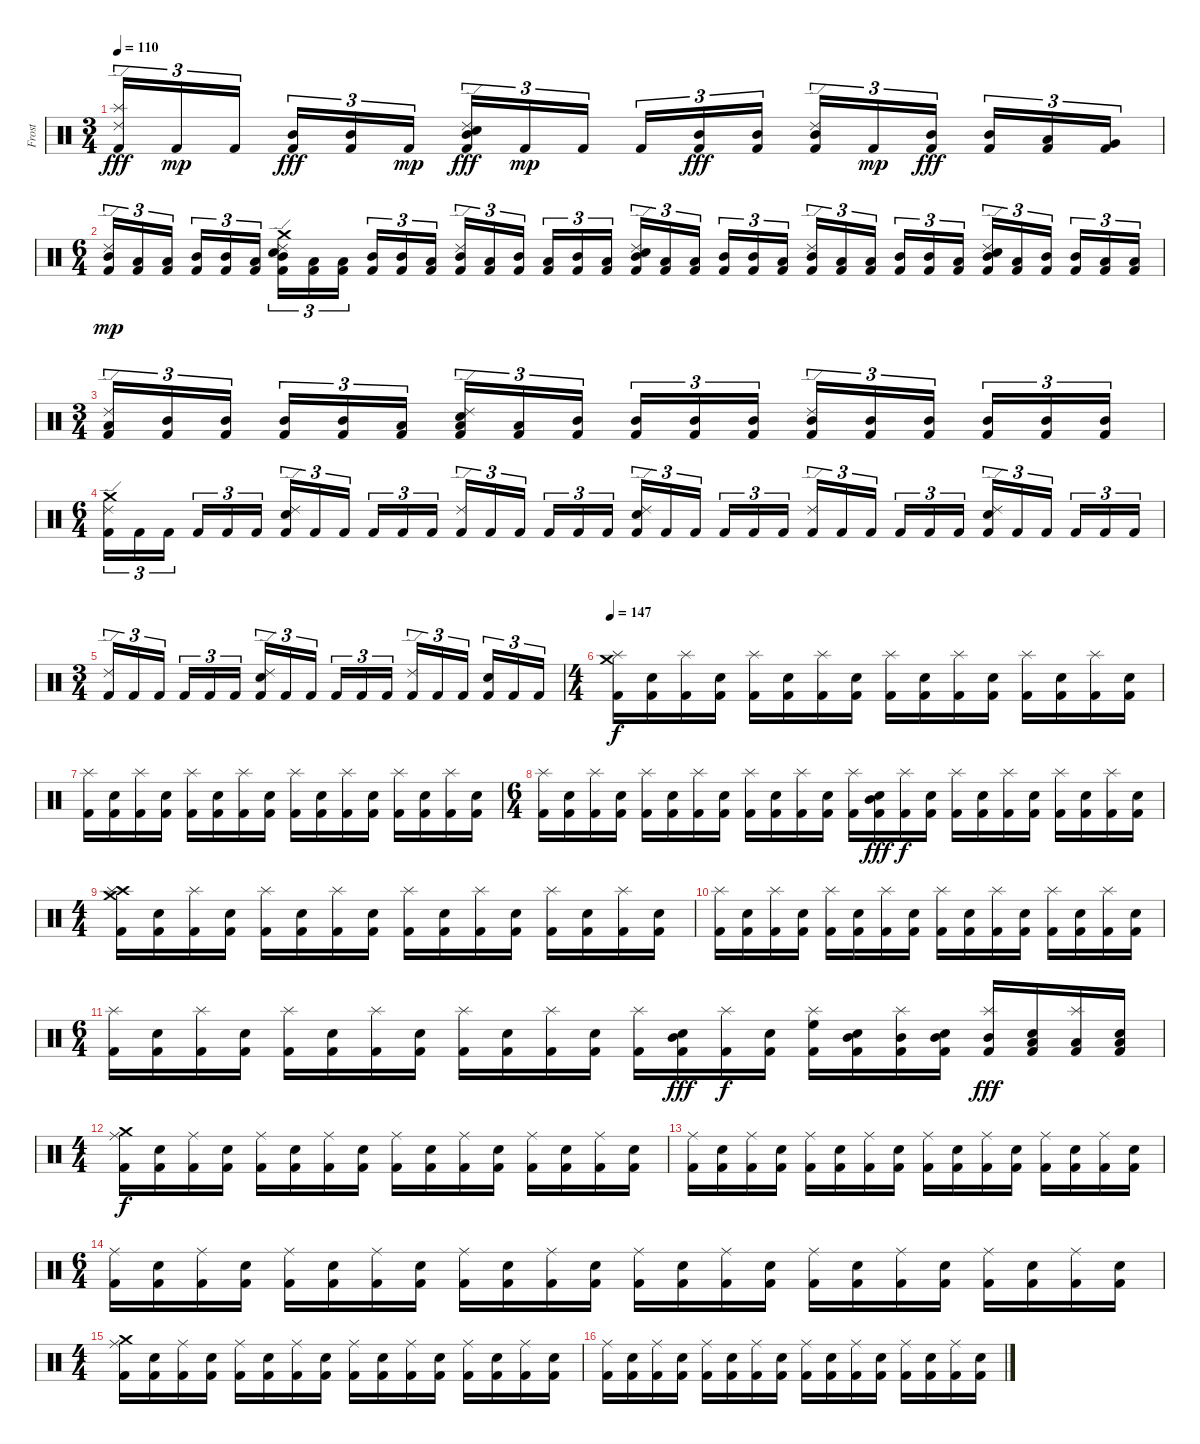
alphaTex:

\track ("Frost" "Frost") {instrument percussion}
\staff {score}
\articulation defaults
\ts (3 4)
\tempo 110
\clef neutral
\ks c
("Kick (hit) 2" "Splash (hit)" "Ride (edge) 2").16{tu (3 2) dy fff} "Kick (hit) 2".16{tu (3 2) dy mp} "Kick (hit) 2".16{tu (3 2)} ("Kick (hit) 2" "Mid Tom (hit)").16{tu (3 2) dy fff} ("Kick (hit) 2" "Mid Tom (hit)").16{tu (3 2)} "Kick (hit) 2".16{tu (3 2) dy mp} ("Kick (hit) 2" "Mid Tom (hit)" "Ride (edge) 2" "Snare (hit) 2").16{tu (3 2) dy fff} "Kick (hit) 2".16{tu (3 2) dy mp} "Kick (hit) 2".16{tu (3 2)} "Kick (hit) 2".16{tu (3 2)} ("Kick (hit) 2" "Mid Tom (hit)").16{tu (3 2) dy fff} ("Kick (hit) 2" "Mid Tom (hit)").16{tu (3 2)} ("Kick (hit) 2" "Mid Tom (hit)" "Ride (edge) 2").16{tu (3 2)} "Kick (hit) 2".16{tu (3 2) dy mp} ("Kick (hit) 2" "Mid Tom (hit)").16{tu (3 2) dy fff} ("Kick (hit) 2" "Mid Tom (hit)").16{tu (3 2)} ("Kick (hit) 2" "Low Tom (hit)").16{tu (3 2)} ("Kick (hit) 2" "Very Low Tom (hit)").16{tu (3 2)} |
\ts (6 4)
("Kick (hit) 2" "Mid Tom (hit)" "Ride (edge) 2").16{tu (3 2) dy mp} ("Kick (hit) 2" "Low Floor Tom (hit)").16{tu (3 2)} ("Kick (hit) 2" "Low Floor Tom (hit)").16{tu (3 2)} ("Kick (hit) 2" "Mid Tom (hit)").16{tu (3 2)} ("Kick (hit) 2" "Mid Tom (hit)").16{tu (3 2)} ("Kick (hit) 2" "Low Floor Tom (hit)").16{tu (3 2)} ("Kick (hit) 2" "Mid Tom (hit)" "Crash medium (hit)" "Ride (edge) 2" "Snare (hit) 2").16{tu (3 2)} ("Kick (hit) 2" "Low Floor Tom (hit)").16{tu (3 2)} ("Kick (hit) 2" "Low Floor Tom (hit)").16{tu (3 2)} ("Kick (hit) 2" "Mid Tom (hit)").16{tu (3 2)} ("Kick (hit) 2" "Mid Tom (hit)").16{tu (3 2)} ("Kick (hit) 2" "Low Floor Tom (hit)").16{tu (3 2)} ("Kick (hit) 2" "Mid Tom (hit)" "Ride (edge) 2").16{tu (3 2)} ("Kick (hit) 2" "Low Floor Tom (hit)").16{tu (3 2)} ("Kick (hit) 2" "Mid Tom (hit)").16{tu (3 2)} ("Kick (hit) 2" "Low Floor Tom (hit)").16{tu (3 2)} ("Kick (hit) 2" "Mid Tom (hit)").16{tu (3 2)} ("Kick (hit) 2" "Low Floor Tom (hit)").16{tu (3 2)} ("Kick (hit) 2" "Mid Tom (hit)" "Ride (edge) 2" "Snare (hit) 2").16{tu (3 2)} ("Kick (hit) 2" "Low Floor Tom (hit)").16{tu (3 2)} ("Kick (hit) 2" "Low Floor Tom (hit)").16{tu (3 2)} ("Kick (hit) 2" "Mid Tom (hit)").16{tu (3 2)} ("Kick (hit) 2" "Mid Tom (hit)").16{tu (3 2)} ("Kick (hit) 2" "Low Floor Tom (hit)").16{tu (3 2)} ("Kick (hit) 2" "Mid Tom (hit)" "Ride (edge) 2").16{tu (3 2)} ("Kick (hit) 2" "Low Floor Tom (hit)").16{tu (3 2)} ("Kick (hit) 2" "Low Floor Tom (hit)").16{tu (3 2)} ("Kick (hit) 2" "Mid Tom (hit)").16{tu (3 2)} ("Kick (hit) 2" "Mid Tom (hit)").16{tu (3 2)} ("Kick (hit) 2" "Low Floor Tom (hit)").16{tu (3 2)} ("Kick (hit) 2" "Mid Tom (hit)" "Ride (edge) 2" "Snare (hit) 2").16{tu (3 2)} ("Kick (hit) 2" "Low Floor Tom (hit)").16{tu (3 2)} ("Kick (hit) 2" "Mid Tom (hit)").16{tu (3 2)} ("Kick (hit) 2" "Mid Tom (hit)").16{tu (3 2)} ("Kick (hit) 2" "Low Floor Tom (hit)").16{tu (3 2)} ("Kick (hit) 2" "Low Floor Tom (hit)").16{tu (3 2)} |
\ts (3 4)
("Kick (hit) 2" "Low Floor Tom (hit)" "Ride (edge) 2").16{tu (3 2)} ("Kick (hit) 2" "Mid Tom (hit)").16{tu (3 2)} ("Kick (hit) 2" "Mid Tom (hit)").16{tu (3 2)} ("Kick (hit) 2" "Mid Tom (hit)").16{tu (3 2)} ("Kick (hit) 2" "Mid Tom (hit)").16{tu (3 2)} ("Kick (hit) 2" "Low Floor Tom (hit)").16{tu (3 2)} ("Kick (hit) 2" "Low Floor Tom (hit)" "Ride (edge) 2" "Snare (hit) 2").16{tu (3 2)} ("Kick (hit) 2" "Low Floor Tom (hit)").16{tu (3 2)} ("Kick (hit) 2" "Mid Tom (hit)").16{tu (3 2)} ("Kick (hit) 2" "Mid Tom (hit)").16{tu (3 2)} ("Kick (hit) 2" "Mid Tom (hit)").16{tu (3 2)} ("Kick (hit) 2" "Mid Tom (hit)").16{tu (3 2)} ("Kick (hit) 2" "Mid Tom (hit)" "Ride (edge) 2").16{tu (3 2)} ("Kick (hit) 2" "Mid Tom (hit)").16{tu (3 2)} ("Kick (hit) 2" "Mid Tom (hit)").16{tu (3 2)} ("Kick (hit) 2" "Mid Tom (hit)").16{tu (3 2)} ("Kick (hit) 2" "Mid Tom (hit)").16{tu (3 2)} ("Kick (hit) 2" "Mid Tom (hit)").16{tu (3 2)} |
\ts (6 4)
("Kick (hit) 2" "Crash medium (hit)" "Ride (edge) 2").16{tu (3 2)} "Kick (hit) 2".16{tu (3 2)} "Kick (hit) 2".16{tu (3 2)} "Kick (hit) 2".16{tu (3 2)} "Kick (hit) 2".16{tu (3 2)} "Kick (hit) 2".16{tu (3 2)} ("Kick (hit) 2" "Ride (edge) 2" "Snare (hit) 2").16{tu (3 2)} "Kick (hit) 2".16{tu (3 2)} "Kick (hit) 2".16{tu (3 2)} "Kick (hit) 2".16{tu (3 2)} "Kick (hit) 2".16{tu (3 2)} "Kick (hit) 2".16{tu (3 2)} ("Kick (hit) 2" "Ride (edge) 2").16{tu (3 2)} "Kick (hit) 2".16{tu (3 2)} "Kick (hit) 2".16{tu (3 2)} "Kick (hit) 2".16{tu (3 2)} "Kick (hit) 2".16{tu (3 2)} "Kick (hit) 2".16{tu (3 2)} ("Kick (hit) 2" "Ride (edge) 2" "Snare (hit) 2").16{tu (3 2)} "Kick (hit) 2".16{tu (3 2)} "Kick (hit) 2".16{tu (3 2)} "Kick (hit) 2".16{tu (3 2)} "Kick (hit) 2".16{tu (3 2)} "Kick (hit) 2".16{tu (3 2)} ("Kick (hit) 2" "Ride (edge) 2").16{tu (3 2)} "Kick (hit) 2".16{tu (3 2)} "Kick (hit) 2".16{tu (3 2)} "Kick (hit) 2".16{tu (3 2)} "Kick (hit) 2".16{tu (3 2)} "Kick (hit) 2".16{tu (3 2)} ("Kick (hit) 2" "Ride (edge) 2" "Snare (hit) 2").16{tu (3 2)} "Kick (hit) 2".16{tu (3 2)} "Kick (hit) 2".16{tu (3 2)} "Kick (hit) 2".16{tu (3 2)} "Kick (hit) 2".16{tu (3 2)} "Kick (hit) 2".16{tu (3 2)} |
\ts (3 4)
("Kick (hit) 2" "Ride (edge) 2").16{tu (3 2)} "Kick (hit) 2".16{tu (3 2)} "Kick (hit) 2".16{tu (3 2)} "Kick (hit) 2".16{tu (3 2)} "Kick (hit) 2".16{tu (3 2)} "Kick (hit) 2".16{tu (3 2)} ("Kick (hit) 2" "Ride (edge) 2" "Snare (hit) 2").16{tu (3 2)} "Kick (hit) 2".16{tu (3 2)} "Kick (hit) 2".16{tu (3 2)} "Kick (hit) 2".16{tu (3 2)} "Kick (hit) 2".16{tu (3 2)} "Kick (hit) 2".16{tu (3 2)} ("Kick (hit) 2" "Ride (edge) 2").16{tu (3 2)} "Kick (hit) 2".16{tu (3 2)} "Kick (hit) 2".16{tu (3 2)} ("Kick (hit) 2" "Snare (hit) 2").16{tu (3 2)} "Kick (hit) 2".16{tu (3 2)} "Kick (hit) 2".16{tu (3 2)} |
\ts (4 4)
\tempo 147
("Kick (hit) 2" "Crash medium (hit)" "Splash (hit)").16{dy f} ("Kick (hit) 2" "Electric Snare (hit)").16 ("Kick (hit) 2" "Splash (hit)").16 ("Kick (hit) 2" "Electric Snare (hit)").16 ("Kick (hit) 2" "Splash (hit)").16 ("Kick (hit) 2" "Electric Snare (hit)").16 ("Kick (hit) 2" "Splash (hit)").16 ("Kick (hit) 2" "Electric Snare (hit)").16 ("Kick (hit) 2" "Splash (hit)").16 ("Kick (hit) 2" "Electric Snare (hit)").16 ("Kick (hit) 2" "Splash (hit)").16 ("Kick (hit) 2" "Electric Snare (hit)").16 ("Kick (hit) 2" "Splash (hit)").16 ("Kick (hit) 2" "Electric Snare (hit)").16 ("Kick (hit) 2" "Splash (hit)").16 ("Kick (hit) 2" "Electric Snare (hit)").16 |
("Kick (hit) 2" "Splash (hit)").16 ("Kick (hit) 2" "Electric Snare (hit)").16 ("Kick (hit) 2" "Splash (hit)").16 ("Kick (hit) 2" "Electric Snare (hit)").16 ("Kick (hit) 2" "Splash (hit)").16 ("Kick (hit) 2" "Electric Snare (hit)").16 ("Kick (hit) 2" "Splash (hit)").16 ("Kick (hit) 2" "Electric Snare (hit)").16 ("Kick (hit) 2" "Splash (hit)").16 ("Kick (hit) 2" "Electric Snare (hit)").16 ("Kick (hit) 2" "Splash (hit)").16 ("Kick (hit) 2" "Electric Snare (hit)").16 ("Kick (hit) 2" "Splash (hit)").16 ("Kick (hit) 2" "Electric Snare (hit)").16 ("Kick (hit) 2" "Splash (hit)").16 ("Kick (hit) 2" "Electric Snare (hit)").16 |
\ts (6 4)
("Kick (hit) 2" "Splash (hit)").16 ("Kick (hit) 2" "Electric Snare (hit)").16 ("Kick (hit) 2" "Splash (hit)").16 ("Kick (hit) 2" "Electric Snare (hit)").16 ("Kick (hit) 2" "Splash (hit)").16 ("Kick (hit) 2" "Electric Snare (hit)").16 ("Kick (hit) 2" "Splash (hit)").16 ("Kick (hit) 2" "Electric Snare (hit)").16 ("Kick (hit) 2" "Splash (hit)").16 ("Kick (hit) 2" "Electric Snare (hit)").16 ("Kick (hit) 2" "Splash (hit)").16 ("Kick (hit) 2" "Electric Snare (hit)").16 ("Kick (hit) 2" "Splash (hit)").16 ("Kick (hit) 2" "Mid Tom (hit)" "Electric Snare (hit)").16{dy fff} ("Kick (hit) 2" "Splash (hit)").16{dy f} ("Kick (hit) 2" "Electric Snare (hit)").16 ("Kick (hit) 2" "Splash (hit)").16 ("Kick (hit) 2" "Electric Snare (hit)").16 ("Kick (hit) 2" "Splash (hit)").16 ("Kick (hit) 2" "Electric Snare (hit)").16 ("Kick (hit) 2" "Splash (hit)").16 ("Kick (hit) 2" "Electric Snare (hit)").16 ("Kick (hit) 2" "Splash (hit)").16 ("Kick (hit) 2" "Electric Snare (hit)").16 |
\ts (4 4)
("Kick (hit) 2" "Crash high (hit)" "Crash medium (hit)" "Splash (hit)").16 ("Kick (hit) 2" "Electric Snare (hit)").16 ("Kick (hit) 2" "Splash (hit)").16 ("Kick (hit) 2" "Electric Snare (hit)").16 ("Kick (hit) 2" "Splash (hit)").16 ("Kick (hit) 2" "Electric Snare (hit)").16 ("Kick (hit) 2" "Splash (hit)").16 ("Kick (hit) 2" "Electric Snare (hit)").16 ("Kick (hit) 2" "Splash (hit)").16 ("Kick (hit) 2" "Electric Snare (hit)").16 ("Kick (hit) 2" "Splash (hit)").16 ("Kick (hit) 2" "Electric Snare (hit)").16 ("Kick (hit) 2" "Splash (hit)").16 ("Kick (hit) 2" "Electric Snare (hit)").16 ("Kick (hit) 2" "Splash (hit)").16 ("Kick (hit) 2" "Electric Snare (hit)").16 |
("Kick (hit) 2" "Splash (hit)").16 ("Kick (hit) 2" "Electric Snare (hit)").16 ("Kick (hit) 2" "Splash (hit)").16 ("Kick (hit) 2" "Electric Snare (hit)").16 ("Kick (hit) 2" "Splash (hit)").16 ("Kick (hit) 2" "Electric Snare (hit)").16 ("Kick (hit) 2" "Splash (hit)").16 ("Kick (hit) 2" "Electric Snare (hit)").16 ("Kick (hit) 2" "Splash (hit)").16 ("Kick (hit) 2" "Electric Snare (hit)").16 ("Kick (hit) 2" "Splash (hit)").16 ("Kick (hit) 2" "Electric Snare (hit)").16 ("Kick (hit) 2" "Splash (hit)").16 ("Kick (hit) 2" "Electric Snare (hit)").16 ("Kick (hit) 2" "Splash (hit)").16 ("Kick (hit) 2" "Electric Snare (hit)").16 |
\ts (6 4)
("Kick (hit) 2" "Splash (hit)").16 ("Kick (hit) 2" "Electric Snare (hit)").16 ("Kick (hit) 2" "Splash (hit)").16 ("Kick (hit) 2" "Electric Snare (hit)").16 ("Kick (hit) 2" "Splash (hit)").16 ("Kick (hit) 2" "Electric Snare (hit)").16 ("Kick (hit) 2" "Splash (hit)").16 ("Kick (hit) 2" "Electric Snare (hit)").16 ("Kick (hit) 2" "Splash (hit)").16 ("Kick (hit) 2" "Electric Snare (hit)").16 ("Kick (hit) 2" "Splash (hit)").16 ("Kick (hit) 2" "Electric Snare (hit)").16 ("Kick (hit) 2" "Splash (hit)").16 ("Kick (hit) 2" "Mid Tom (hit)" "Electric Snare (hit)").16{dy fff} ("Kick (hit) 2" "Splash (hit)").16{dy f} ("Kick (hit) 2" "Electric Snare (hit)").16 ("Kick (hit) 2" "High Floor Tom (hit)" "Splash (hit)").16 ("Kick (hit) 2" "Mid Tom (hit)" "Electric Snare (hit)").16 ("Kick (hit) 2" "Mid Tom (hit)" "Splash (hit)").16 ("Kick (hit) 2" "Mid Tom (hit)" "Electric Snare (hit)").16 ("Kick (hit) 2" "Mid Tom (hit)" "Splash (hit)").16{dy fff} ("Kick (hit) 2" "Low Tom (hit)" "Electric Snare (hit)").16 ("Kick (hit) 2" "Low Tom (hit)" "Splash (hit)").16 ("Kick (hit) 2" "Low Floor Tom (hit)" "Electric Snare (hit)").16 |
\ts (4 4)
("Kick (hit) 2" "Crash medium (hit)" "Ride (middle)").16{dy f} ("Kick (hit) 2" "Electric Snare (hit)").16 ("Kick (hit) 2" "Ride (middle)").16 ("Kick (hit) 2" "Electric Snare (hit)").16 ("Kick (hit) 2" "Ride (middle)").16 ("Kick (hit) 2" "Electric Snare (hit)").16 ("Kick (hit) 2" "Ride (middle)").16 ("Kick (hit) 2" "Electric Snare (hit)").16 ("Kick (hit) 2" "Ride (middle)").16 ("Kick (hit) 2" "Electric Snare (hit)").16 ("Kick (hit) 2" "Ride (middle)").16 ("Kick (hit) 2" "Electric Snare (hit)").16 ("Kick (hit) 2" "Ride (middle)").16 ("Kick (hit) 2" "Electric Snare (hit)").16 ("Kick (hit) 2" "Ride (middle)").16 ("Kick (hit) 2" "Electric Snare (hit)").16 |
("Kick (hit) 2" "Ride (middle)").16 ("Kick (hit) 2" "Electric Snare (hit)").16 ("Kick (hit) 2" "Ride (middle)").16 ("Kick (hit) 2" "Electric Snare (hit)").16 ("Kick (hit) 2" "Ride (middle)").16 ("Kick (hit) 2" "Electric Snare (hit)").16 ("Kick (hit) 2" "Ride (middle)").16 ("Kick (hit) 2" "Electric Snare (hit)").16 ("Kick (hit) 2" "Ride (middle)").16 ("Kick (hit) 2" "Electric Snare (hit)").16 ("Kick (hit) 2" "Ride (middle)").16 ("Kick (hit) 2" "Electric Snare (hit)").16 ("Kick (hit) 2" "Ride (middle)").16 ("Kick (hit) 2" "Electric Snare (hit)").16 ("Kick (hit) 2" "Ride (middle)").16 ("Kick (hit) 2" "Electric Snare (hit)").16 |
\ts (6 4)
("Kick (hit) 2" "Ride (middle)").16 ("Kick (hit) 2" "Electric Snare (hit)").16 ("Kick (hit) 2" "Ride (middle)").16 ("Kick (hit) 2" "Electric Snare (hit)").16 ("Kick (hit) 2" "Ride (middle)").16 ("Kick (hit) 2" "Electric Snare (hit)").16 ("Kick (hit) 2" "Ride (middle)").16 ("Kick (hit) 2" "Electric Snare (hit)").16 ("Kick (hit) 2" "Ride (middle)").16 ("Kick (hit) 2" "Electric Snare (hit)").16 ("Kick (hit) 2" "Ride (middle)").16 ("Kick (hit) 2" "Electric Snare (hit)").16 ("Kick (hit) 2" "Ride (middle)").16 ("Kick (hit) 2" "Electric Snare (hit)").16 ("Kick (hit) 2" "Ride (middle)").16 ("Kick (hit) 2" "Electric Snare (hit)").16 ("Kick (hit) 2" "Ride (middle)").16 ("Kick (hit) 2" "Electric Snare (hit)").16 ("Kick (hit) 2" "Ride (middle)").16 ("Kick (hit) 2" "Electric Snare (hit)").16 ("Kick (hit) 2" "Ride (middle)").16 ("Kick (hit) 2" "Electric Snare (hit)").16 ("Kick (hit) 2" "Ride (middle)").16 ("Kick (hit) 2" "Electric Snare (hit)").16 |
\ts (4 4)
("Kick (hit) 2" "Crash medium (hit)" "Ride (middle)").16 ("Kick (hit) 2" "Electric Snare (hit)").16 ("Kick (hit) 2" "Ride (middle)").16 ("Kick (hit) 2" "Electric Snare (hit)").16 ("Kick (hit) 2" "Ride (middle)").16 ("Kick (hit) 2" "Electric Snare (hit)").16 ("Kick (hit) 2" "Ride (middle)").16 ("Kick (hit) 2" "Electric Snare (hit)").16 ("Kick (hit) 2" "Ride (middle)").16 ("Kick (hit) 2" "Electric Snare (hit)").16 ("Kick (hit) 2" "Ride (middle)").16 ("Kick (hit) 2" "Electric Snare (hit)").16 ("Kick (hit) 2" "Ride (middle)").16 ("Kick (hit) 2" "Electric Snare (hit)").16 ("Kick (hit) 2" "Ride (middle)").16 ("Kick (hit) 2" "Electric Snare (hit)").16 |
("Kick (hit) 2" "Ride (middle)").16 ("Kick (hit) 2" "Electric Snare (hit)").16 ("Kick (hit) 2" "Ride (middle)").16 ("Kick (hit) 2" "Electric Snare (hit)").16 ("Kick (hit) 2" "Ride (middle)").16 ("Kick (hit) 2" "Electric Snare (hit)").16 ("Kick (hit) 2" "Ride (middle)").16 ("Kick (hit) 2" "Electric Snare (hit)").16 ("Kick (hit) 2" "Ride (middle)").16 ("Kick (hit) 2" "Electric Snare (hit)").16 ("Kick (hit) 2" "Ride (middle)").16 ("Kick (hit) 2" "Electric Snare (hit)").16 ("Kick (hit) 2" "Ride (middle)").16 ("Kick (hit) 2" "Electric Snare (hit)").16 ("Kick (hit) 2" "Ride (middle)").16 ("Kick (hit) 2" "Electric Snare (hit)").16
